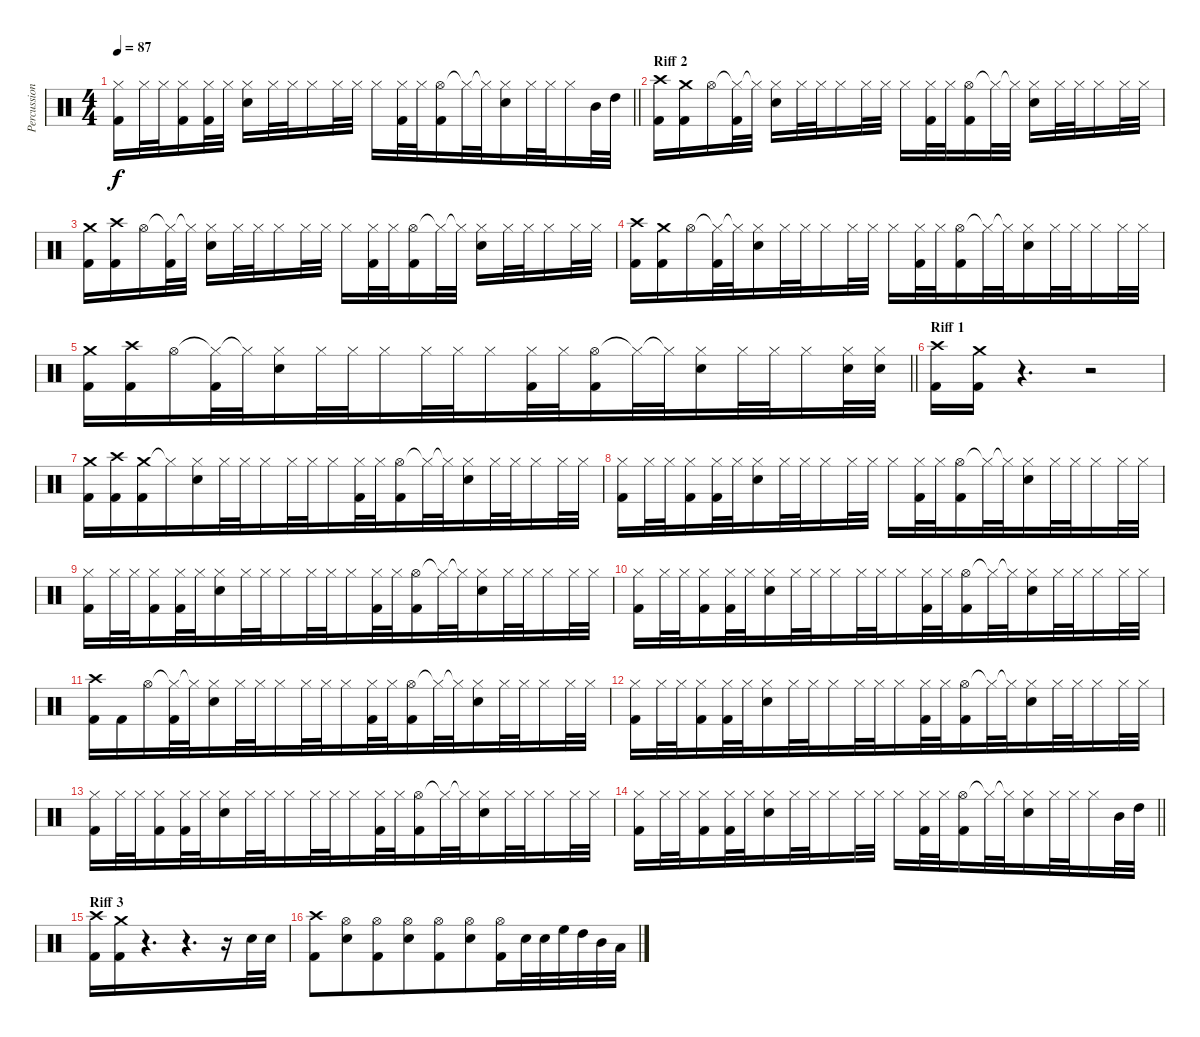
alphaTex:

\track ("Percussion" "Percussion") {instrument percussion}
\staff {score}
\articulation defaults
\ts (4 4)
\tempo 87
\clef neutral
\barLineRight lightlight
\ks c
("Hi-Hat (closed)" "Kick (hit) 2").16{dy f} "Hi-Hat (closed)".32 "Hi-Hat (closed)".32{beam merge} ("Hi-Hat (closed)" "Kick (hit) 2").16{beam merge} ("Hi-Hat (closed)" "Kick (hit) 2").32 "Hi-Hat (closed)".32 ("Hi-Hat (closed)" "Electric Snare (hit)").16 "Hi-Hat (closed)".32{beam merge} "Hi-Hat (closed)".32{beam merge} "Hi-Hat (closed)".16{beam merge} "Hi-Hat (closed)".32{beam merge} "Hi-Hat (closed)".32 "Hi-Hat (closed)".16{beam merge} ("Hi-Hat (closed)" "Kick (hit) 2").32 "Hi-Hat (closed)".32{beam merge} ("Hi-Hat (open)" "Kick (hit) 2").16 "Hi-Hat (closed)"{t}.32 "Hi-Hat (closed)"{t}.32{beam merge} ("Hi-Hat (closed)" "Electric Snare (hit)").16{beam merge} "Hi-Hat (closed)".32 "Hi-Hat (closed)".32 "Hi-Hat (closed)".16 "Mid Tom (hit)".32 "High Tom (hit)".32 |
\section ("" "Riff 2")
("Crash high (hit)" "Kick (hit) 2").16 ("Crash medium (hit)" "Kick (hit) 2").16 "Hi-Hat (open)".16 ("Hi-Hat (closed)"{t} "Kick (hit) 2").32{beam merge} "Hi-Hat (closed)"{t}.32 ("Hi-Hat (closed)" "Electric Snare (hit)").16{beam merge} "Hi-Hat (closed)".32 "Hi-Hat (closed)".32 "Hi-Hat (closed)".16{beam merge} "Hi-Hat (closed)".32 "Hi-Hat (closed)".32 "Hi-Hat (closed)".16 ("Hi-Hat (closed)" "Kick (hit) 2").32 "Hi-Hat (closed)".32 ("Hi-Hat (open)" "Kick (hit) 2").16 "Hi-Hat (closed)"{t}.32{beam merge} "Hi-Hat (closed)"{t}.32 ("Hi-Hat (closed)" "Electric Snare (hit)").16 "Hi-Hat (closed)".32 "Hi-Hat (closed)".32 "Hi-Hat (closed)".16 "Hi-Hat (closed)".32{beam merge} "Hi-Hat (closed)".32 |
("Crash medium (hit)" "Kick (hit) 2").16 ("Crash high (hit)" "Kick (hit) 2").16{beam merge} "Hi-Hat (open)".16 ("Hi-Hat (closed)"{t} "Kick (hit) 2").32 "Hi-Hat (closed)"{t}.32 ("Hi-Hat (closed)" "Electric Snare (hit)").16 "Hi-Hat (closed)".32 "Hi-Hat (closed)".32 "Hi-Hat (closed)".16 "Hi-Hat (closed)".32{beam merge} "Hi-Hat (closed)".32 "Hi-Hat (closed)".16 ("Hi-Hat (closed)" "Kick (hit) 2").32 "Hi-Hat (closed)".32{beam merge} ("Hi-Hat (open)" "Kick (hit) 2").16 "Hi-Hat (closed)"{t}.32{beam merge} "Hi-Hat (closed)"{t}.32 ("Hi-Hat (closed)" "Electric Snare (hit)").16 "Hi-Hat (closed)".32{beam merge} "Hi-Hat (closed)".32 "Hi-Hat (closed)".16 "Hi-Hat (closed)".32 "Hi-Hat (closed)".32 |
("Crash high (hit)" "Kick (hit) 2").16{beam merge} ("Crash medium (hit)" "Kick (hit) 2").16 "Hi-Hat (open)".16 ("Hi-Hat (closed)"{t} "Kick (hit) 2").32{beam merge} "Hi-Hat (closed)"{t}.32{beam merge} ("Hi-Hat (closed)" "Electric Snare (hit)").16 "Hi-Hat (closed)".32 "Hi-Hat (closed)".32 "Hi-Hat (closed)".16{beam merge} "Hi-Hat (closed)".32 "Hi-Hat (closed)".32 "Hi-Hat (closed)".16{beam merge} ("Hi-Hat (closed)" "Kick (hit) 2").32 "Hi-Hat (closed)".32 ("Hi-Hat (open)" "Kick (hit) 2").16 "Hi-Hat (closed)"{t}.32 "Hi-Hat (closed)"{t}.32{beam merge} ("Hi-Hat (closed)" "Electric Snare (hit)").16 "Hi-Hat (closed)".32 "Hi-Hat (closed)".32 "Hi-Hat (closed)".16{beam merge} "Hi-Hat (closed)".32 "Hi-Hat (closed)".32 |
\barLineRight lightlight
("Crash medium (hit)" "Kick (hit) 2").16 ("Crash high (hit)" "Kick (hit) 2").16 "Hi-Hat (open)".16{beam merge} ("Hi-Hat (closed)"{t} "Kick (hit) 2").32{beam merge} "Hi-Hat (closed)"{t}.32{beam merge} ("Hi-Hat (closed)" "Electric Snare (hit)").16 "Hi-Hat (closed)".32{beam merge} "Hi-Hat (closed)".32{beam merge} "Hi-Hat (closed)".16{beam merge} "Hi-Hat (closed)".32{beam merge} "Hi-Hat (closed)".32{beam merge} "Hi-Hat (closed)".16{beam merge} ("Hi-Hat (closed)" "Kick (hit) 2").32{beam merge} "Hi-Hat (closed)".32{beam merge} ("Hi-Hat (open)" "Kick (hit) 2").16{beam merge} "Hi-Hat (closed)"{t}.32{beam merge} "Hi-Hat (closed)"{t}.32{beam merge} ("Hi-Hat (closed)" "Electric Snare (hit)").16{beam merge} "Hi-Hat (closed)".32{beam merge} "Hi-Hat (closed)".32{beam merge} "Hi-Hat (closed)".16{beam merge} ("Hi-Hat (closed)" "Electric Snare (hit)").32 ("Hi-Hat (closed)" "Electric Snare (hit)").32 |
\section ("" "Riff 1")
("Crash high (hit)" "Kick (hit) 2").16{beam merge} ("Crash medium (hit)" "Kick (hit) 2").16{beam merge} r.4{d beam merge} r.2 |
("Crash medium (hit)" "Kick (hit) 2").16{beam merge} ("Crash high (hit)" "Kick (hit) 2").16{beam merge} ("Crash medium (hit)" "Kick (hit) 2").16{beam merge} "Hi-Hat (closed)"{t}.16{beam merge} ("Hi-Hat (closed)" "Electric Snare (hit)").16{beam merge} "Hi-Hat (closed)".32{beam merge} "Hi-Hat (closed)".32{beam merge} "Hi-Hat (closed)".16{beam merge} "Hi-Hat (closed)".32{beam merge} "Hi-Hat (closed)".32{beam merge} "Hi-Hat (closed)".16{beam merge} ("Hi-Hat (closed)" "Kick (hit) 2").32{beam merge} "Hi-Hat (closed)".32{beam merge} ("Hi-Hat (open)" "Kick (hit) 2").16{beam merge} "Hi-Hat (closed)"{t}.32{beam merge} "Hi-Hat (closed)"{t}.32{beam merge} ("Hi-Hat (closed)" "Electric Snare (hit)").16{beam merge} "Hi-Hat (closed)".32{beam merge} "Hi-Hat (closed)".32{beam merge} "Hi-Hat (closed)".16{beam merge} "Hi-Hat (closed)".32{beam merge} "Hi-Hat (closed)".32 |
("Hi-Hat (closed)" "Kick (hit) 2").16{beam merge} "Hi-Hat (closed)".32{beam merge} "Hi-Hat (closed)".32{beam merge} ("Hi-Hat (closed)" "Kick (hit) 2").16 ("Hi-Hat (closed)" "Kick (hit) 2").32{beam merge} "Hi-Hat (closed)".32{beam merge} ("Hi-Hat (closed)" "Electric Snare (hit)").16{beam merge} "Hi-Hat (closed)".32{beam merge} "Hi-Hat (closed)".32{beam merge} "Hi-Hat (closed)".16{beam merge} "Hi-Hat (closed)".32{beam merge} "Hi-Hat (closed)".32 "Hi-Hat (closed)".16{beam merge} ("Hi-Hat (closed)" "Kick (hit) 2").32{beam merge} "Hi-Hat (closed)".32{beam merge} ("Hi-Hat (open)" "Kick (hit) 2").16{beam merge} "Hi-Hat (closed)"{t}.32{beam merge} "Hi-Hat (closed)"{t}.32{beam merge} ("Hi-Hat (closed)" "Electric Snare (hit)").16{beam merge} "Hi-Hat (closed)".32 "Hi-Hat (closed)".32{beam merge} "Hi-Hat (closed)".16{beam merge} "Hi-Hat (closed)".32{beam merge} "Hi-Hat (closed)".32 |
("Hi-Hat (closed)" "Kick (hit) 2").16{beam merge} "Hi-Hat (closed)".32{beam merge} "Hi-Hat (closed)".32{beam merge} ("Hi-Hat (closed)" "Kick (hit) 2").16{beam merge} ("Hi-Hat (closed)" "Kick (hit) 2").32{beam merge} "Hi-Hat (closed)".32{beam merge} ("Hi-Hat (closed)" "Electric Snare (hit)").16{beam merge} "Hi-Hat (closed)".32{beam merge} "Hi-Hat (closed)".32{beam merge} "Hi-Hat (closed)".16 "Hi-Hat (closed)".32{beam merge} "Hi-Hat (closed)".32{beam merge} "Hi-Hat (closed)".16{beam merge} ("Hi-Hat (closed)" "Kick (hit) 2").32{beam merge} "Hi-Hat (closed)".32{beam merge} ("Hi-Hat (open)" "Kick (hit) 2").16{beam merge} "Hi-Hat (closed)"{t}.32{beam merge} "Hi-Hat (closed)"{t}.32{beam merge} ("Hi-Hat (closed)" "Electric Snare (hit)").16{beam merge} "Hi-Hat (closed)".32{beam merge} "Hi-Hat (closed)".32{beam merge} "Hi-Hat (closed)".16{beam merge} "Hi-Hat (closed)".32{beam merge} "Hi-Hat (closed)".32 |
("Hi-Hat (closed)" "Kick (hit) 2").16{beam merge} "Hi-Hat (closed)".32{beam merge} "Hi-Hat (closed)".32{beam merge} ("Hi-Hat (closed)" "Kick (hit) 2").16{beam merge} ("Hi-Hat (closed)" "Kick (hit) 2").32{beam merge} "Hi-Hat (closed)".32{beam merge} ("Hi-Hat (closed)" "Electric Snare (hit)").16{beam merge} "Hi-Hat (closed)".32{beam merge} "Hi-Hat (closed)".32{beam merge} "Hi-Hat (closed)".16{beam merge} "Hi-Hat (closed)".32{beam merge} "Hi-Hat (closed)".32{beam merge} "Hi-Hat (closed)".16{beam merge} ("Hi-Hat (closed)" "Kick (hit) 2").32{beam merge} "Hi-Hat (closed)".32{beam merge} ("Hi-Hat (open)" "Kick (hit) 2").16{beam merge} "Hi-Hat (closed)"{t}.32{beam merge} "Hi-Hat (closed)"{t}.32{beam merge} ("Hi-Hat (closed)" "Electric Snare (hit)").16{beam merge} "Hi-Hat (closed)".32{beam merge} "Hi-Hat (closed)".32{beam merge} "Hi-Hat (closed)".16{beam merge} "Hi-Hat (closed)".32{beam merge} "Hi-Hat (closed)".32 |
("Crash high (hit)" "Kick (hit) 2").16{beam merge} "Kick (hit) 2".16{beam merge} "Hi-Hat (open)".16{beam merge} ("Hi-Hat (closed)"{t} "Kick (hit) 2").32{beam merge} "Hi-Hat (closed)"{t}.32{beam merge} ("Hi-Hat (closed)" "Electric Snare (hit)").16{beam merge} "Hi-Hat (closed)".32{beam merge} "Hi-Hat (closed)".32{beam merge} "Hi-Hat (closed)".16{beam merge} "Hi-Hat (closed)".32{beam merge} "Hi-Hat (closed)".32{beam merge} "Hi-Hat (closed)".16{beam merge} ("Hi-Hat (closed)" "Kick (hit) 2").32{beam merge} "Hi-Hat (closed)".32{beam merge} ("Hi-Hat (open)" "Kick (hit) 2").16{beam merge} "Hi-Hat (closed)"{t}.32{beam merge} "Hi-Hat (closed)"{t}.32{beam merge} ("Hi-Hat (closed)" "Electric Snare (hit)").16{beam merge} "Hi-Hat (closed)".32{beam merge} "Hi-Hat (closed)".32{beam merge} "Hi-Hat (closed)".16 "Hi-Hat (closed)".32{beam merge} "Hi-Hat (closed)".32 |
("Hi-Hat (closed)" "Kick (hit) 2").16{beam merge} "Hi-Hat (closed)".32{beam merge} "Hi-Hat (closed)".32{beam merge} ("Hi-Hat (closed)" "Kick (hit) 2").16{beam merge} ("Hi-Hat (closed)" "Kick (hit) 2").32{beam merge} "Hi-Hat (closed)".32{beam merge} ("Hi-Hat (closed)" "Electric Snare (hit)").16{beam merge} "Hi-Hat (closed)".32 "Hi-Hat (closed)".32{beam merge} "Hi-Hat (closed)".16{beam merge} "Hi-Hat (closed)".32{beam merge} "Hi-Hat (closed)".32{beam merge} "Hi-Hat (closed)".16{beam merge} ("Hi-Hat (closed)" "Kick (hit) 2").32{beam merge} "Hi-Hat (closed)".32{beam merge} ("Hi-Hat (open)" "Kick (hit) 2").16{beam merge} "Hi-Hat (closed)"{t}.32{beam merge} "Hi-Hat (closed)"{t}.32{beam merge} ("Hi-Hat (closed)" "Electric Snare (hit)").16{beam merge} "Hi-Hat (closed)".32{beam merge} "Hi-Hat (closed)".32{beam merge} "Hi-Hat (closed)".16{beam merge} "Hi-Hat (closed)".32{beam merge} "Hi-Hat (closed)".32 |
("Hi-Hat (closed)" "Kick (hit) 2").16{beam merge} "Hi-Hat (closed)".32{beam merge} "Hi-Hat (closed)".32{beam merge} ("Hi-Hat (closed)" "Kick (hit) 2").16{beam merge} ("Hi-Hat (closed)" "Kick (hit) 2").32{beam merge} "Hi-Hat (closed)".32{beam merge} ("Hi-Hat (closed)" "Electric Snare (hit)").16{beam merge} "Hi-Hat (closed)".32 "Hi-Hat (closed)".32{beam merge} "Hi-Hat (closed)".16{beam merge} "Hi-Hat (closed)".32{beam merge} "Hi-Hat (closed)".32{beam merge} "Hi-Hat (closed)".16{beam merge} ("Hi-Hat (closed)" "Kick (hit) 2").32{beam merge} "Hi-Hat (closed)".32{beam merge} ("Hi-Hat (open)" "Kick (hit) 2").16 "Hi-Hat (closed)"{t}.32{beam merge} "Hi-Hat (closed)"{t}.32{beam merge} ("Hi-Hat (closed)" "Electric Snare (hit)").16{beam merge} "Hi-Hat (closed)".32{beam merge} "Hi-Hat (closed)".32{beam merge} "Hi-Hat (closed)".16{beam merge} "Hi-Hat (closed)".32{beam merge} "Hi-Hat (closed)".32 |
\barLineRight lightlight
("Hi-Hat (closed)" "Kick (hit) 2").16{beam merge} "Hi-Hat (closed)".32{beam merge} "Hi-Hat (closed)".32{beam merge} ("Hi-Hat (closed)" "Kick (hit) 2").16 ("Hi-Hat (closed)" "Kick (hit) 2").32{beam merge} "Hi-Hat (closed)".32{beam merge} ("Hi-Hat (closed)" "Electric Snare (hit)").16{beam merge} "Hi-Hat (closed)".32{beam merge} "Hi-Hat (closed)".32{beam merge} "Hi-Hat (closed)".16{beam merge} "Hi-Hat (closed)".32{beam merge} "Hi-Hat (closed)".32 "Hi-Hat (closed)".16{beam merge} ("Hi-Hat (closed)" "Kick (hit) 2").32{beam merge} "Hi-Hat (closed)".32{beam merge} ("Hi-Hat (open)" "Kick (hit) 2").16{beam merge} "Hi-Hat (closed)"{t}.32{beam merge} "Hi-Hat (closed)"{t}.32{beam merge} ("Hi-Hat (closed)" "Electric Snare (hit)").16{beam merge} "Hi-Hat (closed)".32 "Hi-Hat (closed)".32{beam merge} "Hi-Hat (closed)".16{beam merge} "Mid Tom (hit)".32{beam merge} "High Tom (hit)".32 |
\section ("" "Riff 3")
("Crash high (hit)" "Kick (hit) 2").16{beam merge} ("Crash medium (hit)" "Kick (hit) 2").16{beam merge} r.4{d beam merge} r.4{d beam merge} r.16{beam merge} "Electric Snare (hit)".32{beam merge} "Electric Snare (hit)".32 |
("Crash high (hit)" "Kick (hit) 2").8{beam merge} ("Hi-Hat (open)" "Electric Snare (hit)").8{beam merge} ("Hi-Hat (open)" "Kick (hit) 2").8{beam merge} ("Hi-Hat (open)" "Electric Snare (hit)").8{beam merge} ("Hi-Hat (open)" "Kick (hit) 2").8{beam merge} ("Hi-Hat (open)" "Electric Snare (hit)").8{beam merge} ("Hi-Hat (open)" "Kick (hit) 2").16{beam merge} "Electric Snare (hit)".32{beam merge} "Electric Snare (hit)".32{beam merge} "High Floor Tom (hit)".32{beam merge} "High Tom (hit)".32{beam merge} "Mid Tom (hit)".32{beam merge} "Low Tom (hit)".32
